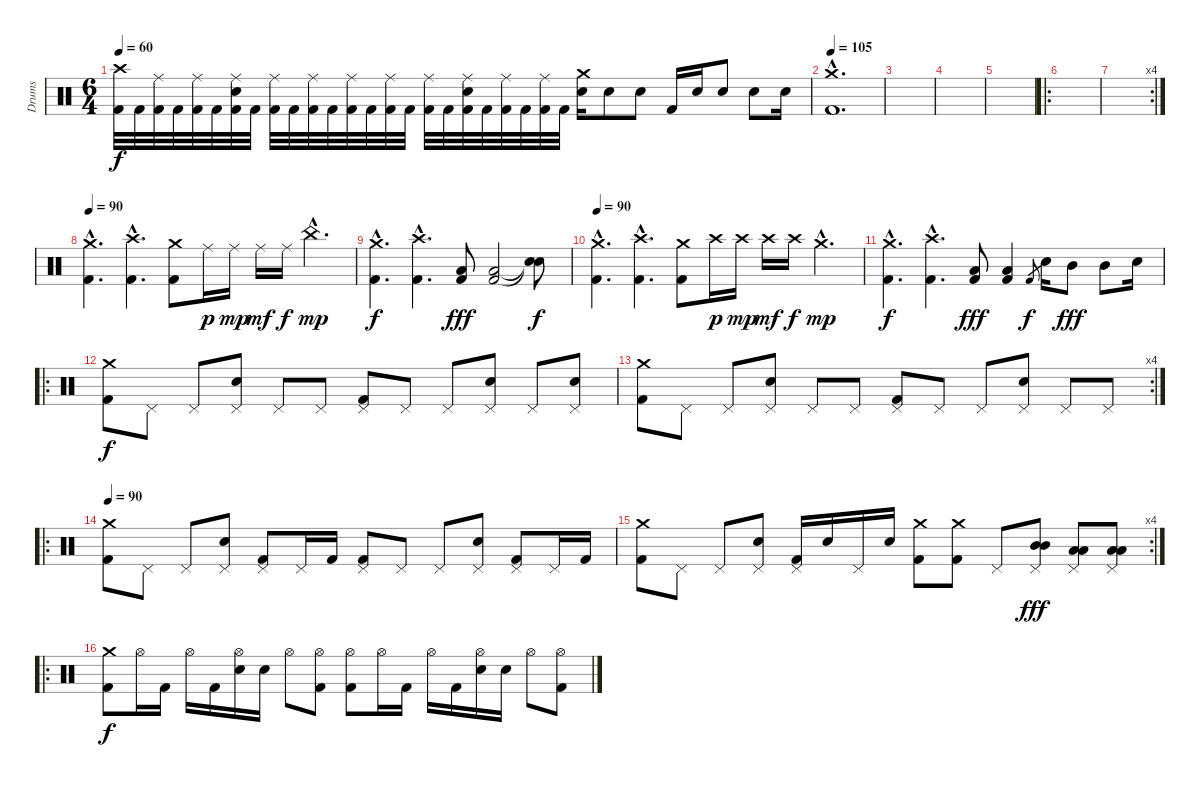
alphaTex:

\track ("Drums" "Drums") {instrument percussion}
\staff {score}
\articulation defaults
\ts (6 4)
\tempo 60
\clef neutral
\ks c
("Crash high (hit)" "Kick (hit) 2").32{dy f} "Kick (hit) 2".32 ("Ride (middle)" "Kick (hit) 2").32 "Kick (hit) 2".32 ("Ride (middle)" "Kick (hit) 2").32 "Kick (hit) 2".32 ("Ride (middle)" "Electric Snare (hit)" "Kick (hit) 2").32 "Kick (hit) 2".32 ("Ride (middle)" "Kick (hit) 2").32 "Kick (hit) 2".32 ("Ride (middle)" "Kick (hit) 2").32 "Kick (hit) 2".32 ("Ride (middle)" "Kick (hit) 2").32 "Kick (hit) 2".32 ("Ride (middle)" "Kick (hit) 2").32 "Kick (hit) 2".32 ("Ride (middle)" "Kick (hit) 2").32 "Kick (hit) 2".32 ("Ride (middle)" "Electric Snare (hit)" "Kick (hit) 2").32 "Kick (hit) 2".32 ("Ride (middle)" "Kick (hit) 2").32 "Kick (hit) 2".32 ("Ride (middle)" "Kick (hit) 2").32 "Kick (hit) 2".32 ("Crash medium (hit)" "Electric Snare (hit)").16 "Electric Snare (hit)".8 "Electric Snare (hit)".8 "Kick (hit) 2".16 "Electric Snare (hit)".16 "Electric Snare (hit)".8 "Electric Snare (hit)".8 "Electric Snare (hit)".16 |
\tempo 105
("Crash medium (hit)"{hac} "Kick (hit) 2"{hac}).1{d} |
|
|
|
\ro
|
\rc 4
|
\tempo 90
("Crash medium (hit)"{hac} "Kick (hit) 2"{hac}).4{d} ("Crash high (hit)"{hac} "Kick (hit) 2"{hac}).4{d} ("Crash medium (hit)" "Kick (hit) 2").8 "Ride (middle)".16{dy p} "Ride (middle)".16{dy mp} "Ride (middle)".16{dy mf} "Ride (middle)".16{dy f} "China (hit)"{hac}.4{d dy mp} |
("Crash medium (hit)"{hac} "Kick (hit) 2"{hac}).4{d dy f} ("Crash high (hit)"{hac} "Kick (hit) 2"{hac}).4{d} ("Low Floor Tom (hit)" "Kick (hit) 2").8{dy fff} ("Low Floor Tom (hit)" "Kick (hit) 2").2 ("Snare (hit)"{t} "Snare (hit)"{t}).8{dy f} |
\tempo 90
("Crash medium (hit)"{hac} "Kick (hit) 2"{hac}).4{d} ("Crash high (hit)"{hac} "Kick (hit) 2"{hac}).4{d} ("Crash medium (hit)" "Kick (hit) 2").8 "Crash high (hit)".16{dy p} "Crash high (hit)".16{dy mp} "Crash high (hit)".16{dy mf} "Crash high (hit)".16{dy f} "Crash medium (hit)"{hac}.4{d dy mp} |
("Crash medium (hit)"{hac} "Kick (hit) 2"{hac}).4{d dy f} ("Crash high (hit)"{hac} "Kick (hit) 2"{hac}).4{d} ("Low Floor Tom (hit)" "Kick (hit) 2").8{dy fff} ("Low Floor Tom (hit)" "Kick (hit) 2").4 "Kick (hit) 2".8{gr dy f} "Electric Snare (hit)".16 "Mid Tom (hit)".8{dy fff} "Mid Tom (hit)".8 "Electric Snare (hit)".16 |
\ro
("Crash medium (hit)" "Kick (hit) 2").8{dy f} "Pedal Hi-Hat (hit)".8 "Pedal Hi-Hat (hit)".8 ("Pedal Hi-Hat (hit)" "Electric Snare (hit)").8 "Pedal Hi-Hat (hit)".8 "Pedal Hi-Hat (hit)".8 ("Pedal Hi-Hat (hit)" "Kick (hit) 2").8 "Pedal Hi-Hat (hit)".8 "Pedal Hi-Hat (hit)".8 ("Pedal Hi-Hat (hit)" "Electric Snare (hit)").8 "Pedal Hi-Hat (hit)".8 ("Pedal Hi-Hat (hit)" "Electric Snare (hit)").8 |
\rc 4
("Crash medium (hit)" "Kick (hit) 2").8 "Pedal Hi-Hat (hit)".8 "Pedal Hi-Hat (hit)".8 ("Pedal Hi-Hat (hit)" "Electric Snare (hit)").8 "Pedal Hi-Hat (hit)".8 "Pedal Hi-Hat (hit)".8 ("Pedal Hi-Hat (hit)" "Kick (hit) 2").8 "Pedal Hi-Hat (hit)".8 "Pedal Hi-Hat (hit)".8 ("Pedal Hi-Hat (hit)" "Electric Snare (hit)").8 "Pedal Hi-Hat (hit)".8 "Pedal Hi-Hat (hit)".8 |
\ro
\tempo 90
("Crash medium (hit)" "Kick (hit) 2").8 "Pedal Hi-Hat (hit)".8 "Pedal Hi-Hat (hit)".8 ("Pedal Hi-Hat (hit)" "Electric Snare (hit)").8 ("Pedal Hi-Hat (hit)" "Kick (hit) 2").8 "Pedal Hi-Hat (hit)".16 "Kick (hit) 2".16 ("Pedal Hi-Hat (hit)" "Kick (hit) 2").8 "Pedal Hi-Hat (hit)".8 "Pedal Hi-Hat (hit)".8 ("Pedal Hi-Hat (hit)" "Electric Snare (hit)").8 ("Pedal Hi-Hat (hit)" "Kick (hit) 2").8 "Pedal Hi-Hat (hit)".16 "Kick (hit) 2".16 |
\rc 4
("Crash medium (hit)" "Kick (hit) 2").8 "Pedal Hi-Hat (hit)".8 "Pedal Hi-Hat (hit)".8 ("Pedal Hi-Hat (hit)" "Electric Snare (hit)").8 ("Pedal Hi-Hat (hit)" "Kick (hit) 2").16 "Electric Snare (hit)".16 "Pedal Hi-Hat (hit)".16 "Electric Snare (hit)".16 ("Crash medium (hit)" "Kick (hit) 2").8 ("Crash medium (hit)" "Kick (hit) 2").8 "Pedal Hi-Hat (hit)".8 ("Pedal Hi-Hat (hit)" "Mid Tom (hit)" "Mid Tom (hit)").8{dy fff} ("Pedal Hi-Hat (hit)" "Low Tom (hit)" "Low Tom (hit)").8 ("Pedal Hi-Hat (hit)" "Low Floor Tom (hit)" "Low Floor Tom (hit)").8 |
\ro
("Crash medium (hit)" "Kick (hit) 2").8{dy f} "Hi-Hat (open)".16 "Kick (hit) 2".16 "Hi-Hat (open)".16 "Kick (hit) 2".16 ("Hi-Hat (open)" "Electric Snare (hit)").16 "Electric Snare (hit)".16 "Hi-Hat (open)".8 ("Hi-Hat (open)" "Kick (hit) 2").8 ("Hi-Hat (open)" "Kick (hit) 2").8 "Hi-Hat (open)".16 "Kick (hit) 2".16 "Hi-Hat (open)".16 "Kick (hit) 2".16 ("Hi-Hat (open)" "Electric Snare (hit)").16 "Electric Snare (hit)".16 "Hi-Hat (open)".8 ("Hi-Hat (open)" "Kick (hit) 2").8
